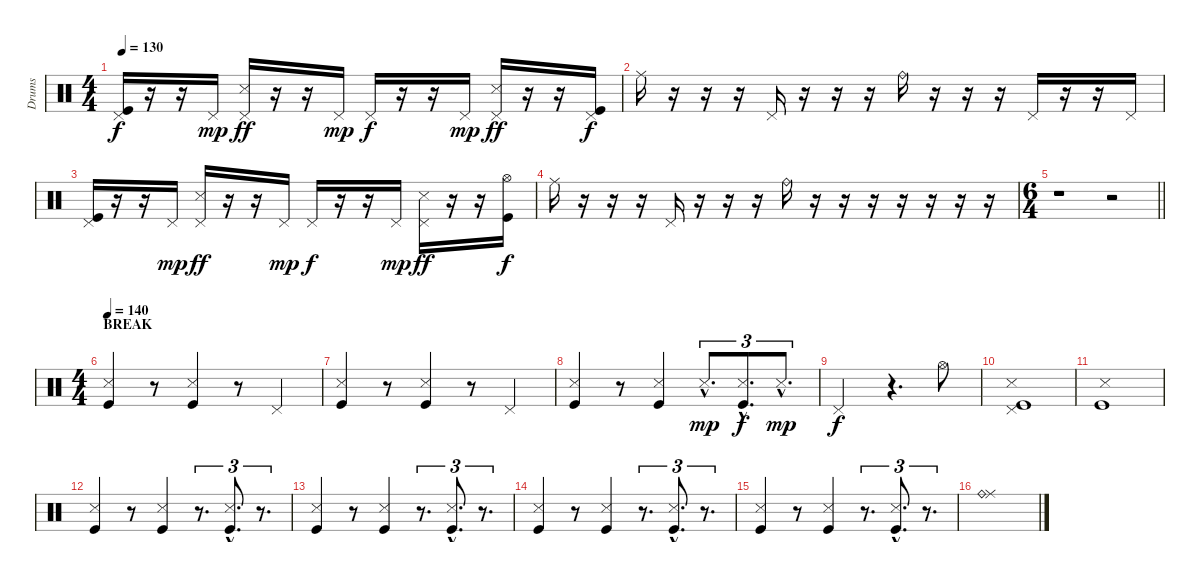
\track ("Drums" "Drums") {instrument percussion}
\staff {score}
\articulation defaults
\ts (4 4)
\tempo 130
\clef neutral
\ks c
("Pedal Hi-Hat (hit)" "Kick (hit)").16{dy f} r.16 r.16 "Pedal Hi-Hat (hit)".16{dy mp} ("Pedal Hi-Hat (hit)" "Snare (side stick) 3").16{dy ff} r.16 r.16 "Pedal Hi-Hat (hit)".16{dy mp} "Pedal Hi-Hat (hit)".16{dy f} r.16 r.16 "Pedal Hi-Hat (hit)".16{dy mp} ("Pedal Hi-Hat (hit)" "Snare (side stick) 3").16{dy ff} r.16 r.16 ("Pedal Hi-Hat (hit)" "Kick (hit)").16{dy f} |
"Ride (middle)".16 r.16 r.16 r.16 "Pedal Hi-Hat (hit)".16 r.16 r.16 r.16 "Ride (bell)".16 r.16 r.16 r.16 "Pedal Hi-Hat (hit)".16 r.16 r.16 "Pedal Hi-Hat (hit)".16 |
("Pedal Hi-Hat (hit)" "Kick (hit)").16 r.16 r.16 "Pedal Hi-Hat (hit)".16{dy mp} ("Pedal Hi-Hat (hit)" "Snare (side stick) 3").16{dy ff} r.16 r.16 "Pedal Hi-Hat (hit)".16{dy mp} "Pedal Hi-Hat (hit)".16{dy f} r.16 r.16 "Pedal Hi-Hat (hit)".16{dy mp} ("Pedal Hi-Hat (hit)" "Snare (side stick) 3").16{dy ff} r.16 r.16 ("Hi-Hat (open)" "Kick (hit)").16{dy f} |
"Ride (middle)".16 r.16 r.16 r.16 "Pedal Hi-Hat (hit)".16 r.16 r.16 r.16 "Ride (bell)".16 r.16 r.16 r.16 r.16 r.16 r.16 r.16 |
\ts (6 4)
\barLineRight lightlight
r.1 r.2 |
\ts (4 4)
\section ("" "BREAK")
\tempo 140
("Snare (side stick) 3" "Kick (hit)").4 r.8 ("Snare (side stick) 3" "Kick (hit)").4 r.8 "Pedal Hi-Hat (hit)".4 |
("Snare (side stick) 3" "Kick (hit)").4 r.8 ("Snare (side stick) 3" "Kick (hit)").4 r.8 "Pedal Hi-Hat (hit)".4 |
("Snare (side stick) 3" "Kick (hit)").4 r.8 ("Snare (side stick) 3" "Kick (hit)").4 "Snare (side stick) 3"{hac}.8{d tu (3 2) dy mp} ("Snare (side stick) 3"{hac} "Kick (hit)"{hac}).8{d tu (3 2) dy f} "Snare (side stick) 3"{hac}.8{d tu (3 2) dy mp} |
"Pedal Hi-Hat (hit)".2{dy f} r.4{d} "Hi-Hat (open)".8 |
("Pedal Hi-Hat (hit)" "Snare (side stick) 3" "Kick (hit)").1 |
("Snare (side stick) 3" "Kick (hit)").1 |
("Snare (side stick) 3" "Kick (hit)").4 r.8 ("Snare (side stick) 3" "Kick (hit)").4 r.8{d tu (3 2)} ("Snare (side stick) 3"{hac} "Kick (hit)"{hac}).8{d tu (3 2)} r.8{d tu (3 2)} |
("Snare (side stick) 3" "Kick (hit)").4 r.8 ("Snare (side stick) 3" "Kick (hit)").4 r.8{d tu (3 2)} ("Snare (side stick) 3"{hac} "Kick (hit)"{hac}).8{d tu (3 2)} r.8{d tu (3 2)} |
("Snare (side stick) 3" "Kick (hit)").4 r.8 ("Snare (side stick) 3" "Kick (hit)").4 r.8{d tu (3 2)} ("Snare (side stick) 3"{hac} "Kick (hit)"{hac}).8{d tu (3 2)} r.8{d tu (3 2)} |
("Snare (side stick) 3" "Kick (hit)").4 r.8 ("Snare (side stick) 3" "Kick (hit)").4 r.8{d tu (3 2)} ("Snare (side stick) 3"{hac} "Kick (hit)"{hac}).8{d tu (3 2)} r.8{d tu (3 2)} |
("Ride (middle)" "Ride (bell)").1
